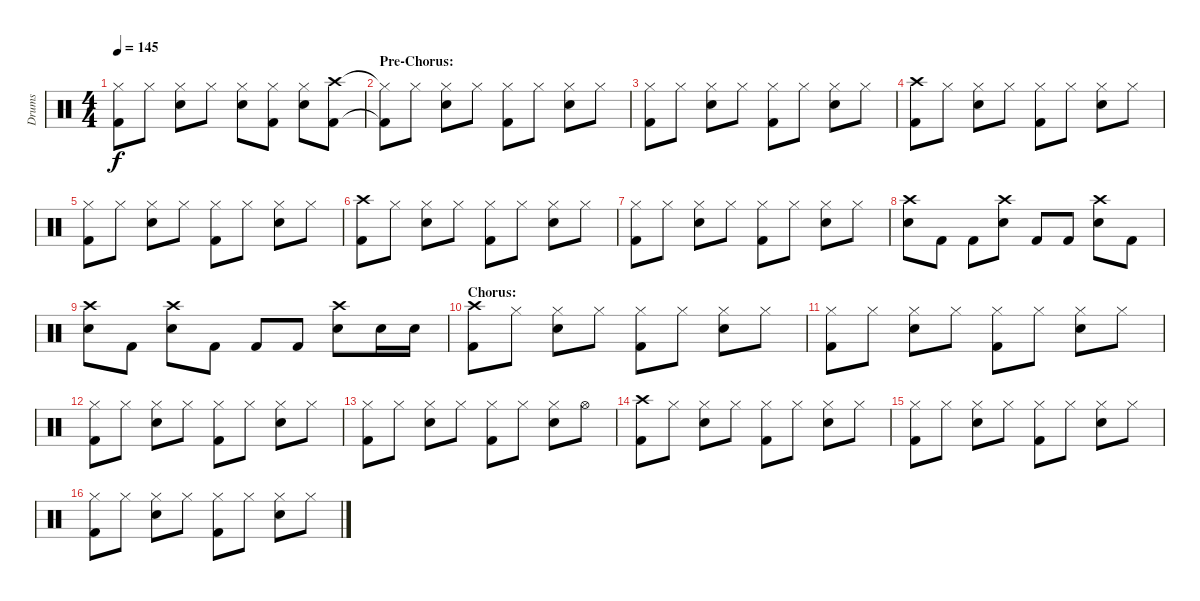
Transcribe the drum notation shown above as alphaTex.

\track ("Drums" "Drums") {instrument percussion}
\staff {score}
\articulation defaults
\ts (4 4)
\tempo 145
\clef neutral
\ks c
("Hi-Hat (closed)"{t} "Kick (hit) 2"{t}).8{dy f} "Hi-Hat (closed)".8 ("Hi-Hat (closed)" "Electric Snare (hit)").8 "Hi-Hat (closed)".8 ("Hi-Hat (closed)" "Electric Snare (hit)").8 ("Hi-Hat (closed)" "Kick (hit) 2").8 ("Hi-Hat (closed)" "Electric Snare (hit)").8 ("Crash high (hit)" "Kick (hit) 2").8 |
\section ("" "Pre-Chorus:")
("Hi-Hat (closed)"{t} "Kick (hit) 2"{t}).8 "Hi-Hat (closed)".8 ("Hi-Hat (closed)" "Electric Snare (hit)").8 "Hi-Hat (closed)".8 ("Hi-Hat (closed)" "Kick (hit) 2").8 "Hi-Hat (closed)".8 ("Hi-Hat (closed)" "Electric Snare (hit)").8 "Hi-Hat (closed)".8 |
("Hi-Hat (closed)" "Kick (hit) 2").8 "Hi-Hat (closed)".8 ("Hi-Hat (closed)" "Electric Snare (hit)").8 "Hi-Hat (closed)".8 ("Hi-Hat (closed)" "Kick (hit) 2").8 "Hi-Hat (closed)".8 ("Hi-Hat (closed)" "Electric Snare (hit)").8 "Hi-Hat (closed)".8 |
("Crash high (hit)" "Kick (hit) 2").8 "Hi-Hat (closed)".8 ("Hi-Hat (closed)" "Electric Snare (hit)").8 "Hi-Hat (closed)".8 ("Hi-Hat (closed)" "Kick (hit) 2").8 "Hi-Hat (closed)".8 ("Hi-Hat (closed)" "Electric Snare (hit)").8 "Hi-Hat (closed)".8 |
("Hi-Hat (closed)" "Kick (hit) 2").8 "Hi-Hat (closed)".8 ("Hi-Hat (closed)" "Electric Snare (hit)").8 "Hi-Hat (closed)".8 ("Hi-Hat (closed)" "Kick (hit) 2").8 "Hi-Hat (closed)".8 ("Hi-Hat (closed)" "Electric Snare (hit)").8 "Hi-Hat (closed)".8 |
("Crash high (hit)" "Kick (hit) 2").8 "Hi-Hat (closed)".8 ("Hi-Hat (closed)" "Electric Snare (hit)").8 "Hi-Hat (closed)".8 ("Hi-Hat (closed)" "Kick (hit) 2").8 "Hi-Hat (closed)".8 ("Hi-Hat (closed)" "Electric Snare (hit)").8 "Hi-Hat (closed)".8 |
("Hi-Hat (closed)" "Kick (hit) 2").8 "Hi-Hat (closed)".8 ("Hi-Hat (closed)" "Electric Snare (hit)").8 "Hi-Hat (closed)".8 ("Hi-Hat (closed)" "Kick (hit) 2").8 "Hi-Hat (closed)".8 ("Hi-Hat (closed)" "Electric Snare (hit)").8 "Hi-Hat (closed)".8 |
("Crash high (hit)" "Electric Snare (hit)").8 "Kick (hit) 2".8 "Kick (hit) 2".8 ("Crash high (hit)" "Electric Snare (hit)").8 "Kick (hit) 2".8 "Kick (hit) 2".8 ("Crash high (hit)" "Electric Snare (hit)").8 "Kick (hit) 2".8 |
("Crash high (hit)" "Electric Snare (hit)").8 "Kick (hit) 2".8 ("Crash high (hit)" "Electric Snare (hit)").8 "Kick (hit) 2".8 "Kick (hit) 2".8 "Kick (hit) 2".8 ("Crash high (hit)" "Electric Snare (hit)").8 "Electric Snare (hit)".16 "Electric Snare (hit)".16 |
\section ("" "Chorus:")
("Crash high (hit)" "Kick (hit) 2").8 "Hi-Hat (closed)".8 ("Hi-Hat (closed)" "Electric Snare (hit)").8 "Hi-Hat (closed)".8 ("Hi-Hat (closed)" "Kick (hit) 2").8 "Hi-Hat (closed)".8 ("Hi-Hat (closed)" "Electric Snare (hit)").8 "Hi-Hat (closed)".8 |
("Hi-Hat (closed)" "Kick (hit) 2").8 "Hi-Hat (closed)".8 ("Hi-Hat (closed)" "Electric Snare (hit)").8 "Hi-Hat (closed)".8 ("Hi-Hat (closed)" "Kick (hit) 2").8 "Hi-Hat (closed)".8 ("Hi-Hat (closed)" "Electric Snare (hit)").8 "Hi-Hat (closed)".8 |
("Hi-Hat (closed)" "Kick (hit) 2").8 "Hi-Hat (closed)".8 ("Hi-Hat (closed)" "Electric Snare (hit)").8 "Hi-Hat (closed)".8 ("Hi-Hat (closed)" "Kick (hit) 2").8 "Hi-Hat (closed)".8 ("Hi-Hat (closed)" "Electric Snare (hit)").8 "Hi-Hat (closed)".8 |
("Hi-Hat (closed)" "Kick (hit) 2").8 "Hi-Hat (closed)".8 ("Hi-Hat (closed)" "Electric Snare (hit)").8 "Hi-Hat (closed)".8 ("Hi-Hat (closed)" "Kick (hit) 2").8 "Hi-Hat (closed)".8 ("Hi-Hat (closed)" "Electric Snare (hit)").8 "Hi-Hat (open)".8 |
("Crash high (hit)" "Kick (hit) 2").8 "Hi-Hat (closed)".8 ("Hi-Hat (closed)" "Electric Snare (hit)").8 "Hi-Hat (closed)".8 ("Hi-Hat (closed)" "Kick (hit) 2").8 "Hi-Hat (closed)".8 ("Hi-Hat (closed)" "Electric Snare (hit)").8 "Hi-Hat (closed)".8 |
("Hi-Hat (closed)" "Kick (hit) 2").8 "Hi-Hat (closed)".8 ("Hi-Hat (closed)" "Electric Snare (hit)").8 "Hi-Hat (closed)".8 ("Hi-Hat (closed)" "Kick (hit) 2").8 "Hi-Hat (closed)".8 ("Hi-Hat (closed)" "Electric Snare (hit)").8 "Hi-Hat (closed)".8 |
("Hi-Hat (closed)" "Kick (hit) 2").8 "Hi-Hat (closed)".8 ("Hi-Hat (closed)" "Electric Snare (hit)").8 "Hi-Hat (closed)".8 ("Hi-Hat (closed)" "Kick (hit) 2").8 "Hi-Hat (closed)".8 ("Hi-Hat (closed)" "Electric Snare (hit)").8 "Hi-Hat (closed)".8
